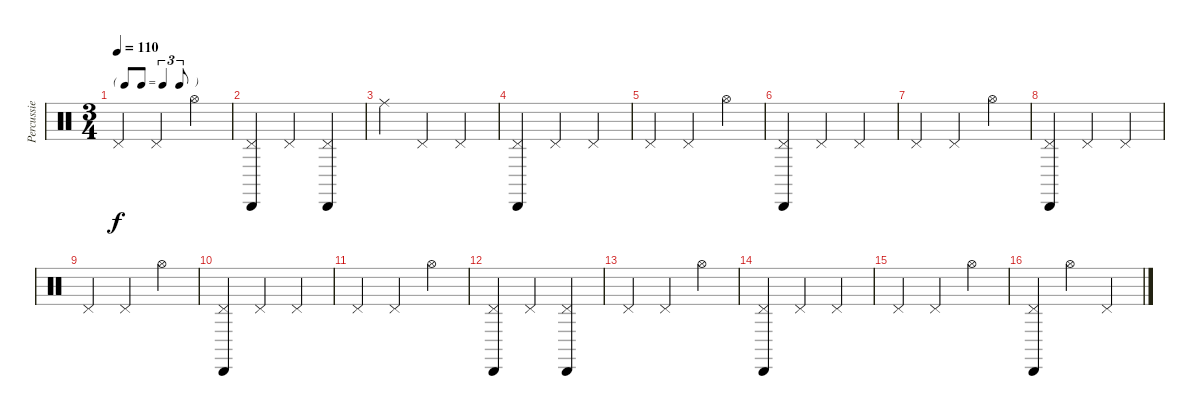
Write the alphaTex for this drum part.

\track ("Percussie" "Percussie") {instrument percussion}
\staff {score}
\articulation defaults
\ts (3 4)
\tf triplet8th
\tempo 110
\clef neutral
\ks c "Pedal Hi-Hat (hit)".4{dy f} "Pedal Hi-Hat (hit)".4 "Hi-Hat (open)".4
|
("Cabasa (hit)" "Pedal Hi-Hat (hit)").4 "Pedal Hi-Hat (hit)".4 ("Cabasa (hit)" "Pedal Hi-Hat (hit)").4 |
"Ride (middle)".4 "Pedal Hi-Hat (hit)".4 "Pedal Hi-Hat (hit)".4 |
("Cabasa (hit)" "Pedal Hi-Hat (hit)").4 "Pedal Hi-Hat (hit)".4 "Pedal Hi-Hat (hit)".4 |
"Pedal Hi-Hat (hit)".4 "Pedal Hi-Hat (hit)".4 "Hi-Hat (open)".4 |
("Cabasa (hit)" "Pedal Hi-Hat (hit)").4 "Pedal Hi-Hat (hit)".4 "Pedal Hi-Hat (hit)".4 |
"Pedal Hi-Hat (hit)".4 "Pedal Hi-Hat (hit)".4 "Hi-Hat (open)".4 |
("Cabasa (hit)" "Pedal Hi-Hat (hit)").4 "Pedal Hi-Hat (hit)".4 "Pedal Hi-Hat (hit)".4 |
"Pedal Hi-Hat (hit)".4 "Pedal Hi-Hat (hit)".4 "Hi-Hat (open)".4 |
("Cabasa (hit)" "Pedal Hi-Hat (hit)").4 "Pedal Hi-Hat (hit)".4 "Pedal Hi-Hat (hit)".4 |
"Pedal Hi-Hat (hit)".4 "Pedal Hi-Hat (hit)".4 "Hi-Hat (open)".4 |
("Cabasa (hit)" "Pedal Hi-Hat (hit)").4 "Pedal Hi-Hat (hit)".4 ("Cabasa (hit)" "Pedal Hi-Hat (hit)").4 |
"Pedal Hi-Hat (hit)".4 "Pedal Hi-Hat (hit)".4 "Hi-Hat (open)".4 |
("Cabasa (hit)" "Pedal Hi-Hat (hit)").4 "Pedal Hi-Hat (hit)".4 "Pedal Hi-Hat (hit)".4 |
"Pedal Hi-Hat (hit)".4 "Pedal Hi-Hat (hit)".4 "Hi-Hat (open)".4 |
("Cabasa (hit)" "Pedal Hi-Hat (hit)").4 "Hi-Hat (open)".4 "Pedal Hi-Hat (hit)".4
